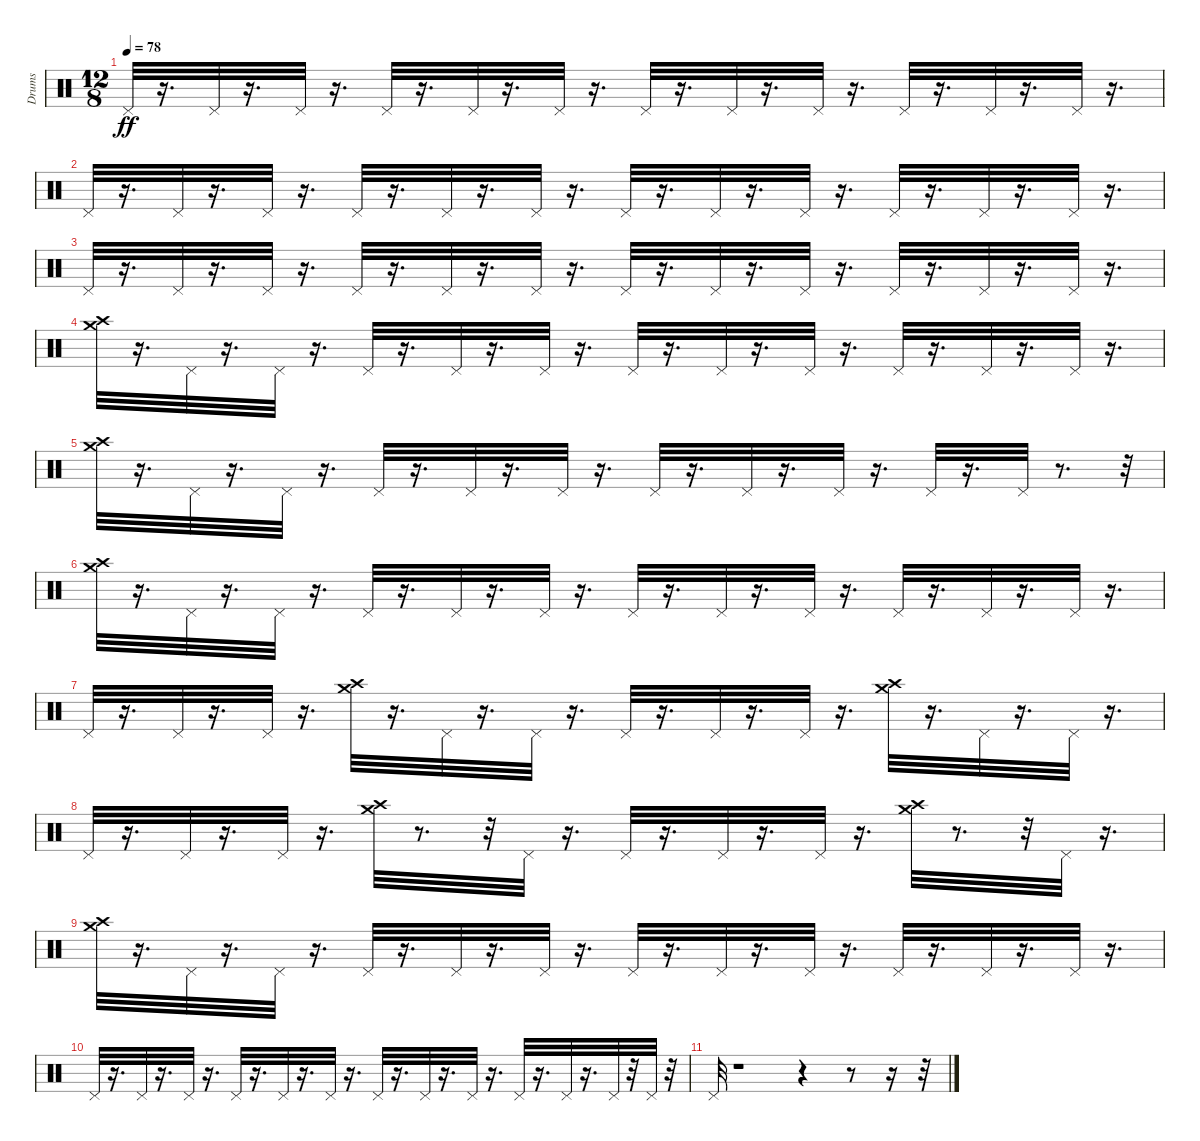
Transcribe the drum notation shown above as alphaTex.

\track ("Drums" "Drums") {instrument percussion}
\staff {score}
\articulation defaults
\ts (12 8)
\tempo 78
\clef neutral
\ks c "Pedal Hi-Hat (hit)".32{dy ff}
r.16{d} "Pedal Hi-Hat (hit)".32 r.16{d} "Pedal Hi-Hat (hit)".32 r.16{d} "Pedal Hi-Hat (hit)".32 r.16{d} "Pedal Hi-Hat (hit)".32 r.16{d} "Pedal Hi-Hat (hit)".32 r.16{d} "Pedal Hi-Hat (hit)".32 r.16{d} "Pedal Hi-Hat (hit)".32 r.16{d} "Pedal Hi-Hat (hit)".32 r.16{d} "Pedal Hi-Hat (hit)".32 r.16{d} "Pedal Hi-Hat (hit)".32 r.16{d} "Pedal Hi-Hat (hit)".32 r.16{d} |
"Pedal Hi-Hat (hit)".32 r.16{d} "Pedal Hi-Hat (hit)".32 r.16{d} "Pedal Hi-Hat (hit)".32 r.16{d} "Pedal Hi-Hat (hit)".32 r.16{d} "Pedal Hi-Hat (hit)".32 r.16{d} "Pedal Hi-Hat (hit)".32 r.16{d} "Pedal Hi-Hat (hit)".32 r.16{d} "Pedal Hi-Hat (hit)".32 r.16{d} "Pedal Hi-Hat (hit)".32 r.16{d} "Pedal Hi-Hat (hit)".32 r.16{d} "Pedal Hi-Hat (hit)".32 r.16{d} "Pedal Hi-Hat (hit)".32 r.16{d} |
"Pedal Hi-Hat (hit)".32 r.16{d} "Pedal Hi-Hat (hit)".32 r.16{d} "Pedal Hi-Hat (hit)".32 r.16{d} "Pedal Hi-Hat (hit)".32 r.16{d} "Pedal Hi-Hat (hit)".32 r.16{d} "Pedal Hi-Hat (hit)".32 r.16{d} "Pedal Hi-Hat (hit)".32 r.16{d} "Pedal Hi-Hat (hit)".32 r.16{d} "Pedal Hi-Hat (hit)".32 r.16{d} "Pedal Hi-Hat (hit)".32 r.16{d} "Pedal Hi-Hat (hit)".32 r.16{d} "Pedal Hi-Hat (hit)".32 r.16{d} |
("Crash medium (hit)" "Crash high (hit)").32 r.16{d} "Pedal Hi-Hat (hit)".32 r.16{d} "Pedal Hi-Hat (hit)".32 r.16{d} "Pedal Hi-Hat (hit)".32 r.16{d} "Pedal Hi-Hat (hit)".32 r.16{d} "Pedal Hi-Hat (hit)".32 r.16{d} "Pedal Hi-Hat (hit)".32 r.16{d} "Pedal Hi-Hat (hit)".32 r.16{d} "Pedal Hi-Hat (hit)".32 r.16{d} "Pedal Hi-Hat (hit)".32 r.16{d} "Pedal Hi-Hat (hit)".32 r.16{d} "Pedal Hi-Hat (hit)".32 r.16{d} |
("Crash medium (hit)" "Crash high (hit)").32 r.16{d} "Pedal Hi-Hat (hit)".32 r.16{d} "Pedal Hi-Hat (hit)".32 r.16{d} "Pedal Hi-Hat (hit)".32 r.16{d} "Pedal Hi-Hat (hit)".32 r.16{d} "Pedal Hi-Hat (hit)".32 r.16{d} "Pedal Hi-Hat (hit)".32 r.16{d} "Pedal Hi-Hat (hit)".32 r.16{d} "Pedal Hi-Hat (hit)".32 r.16{d} "Pedal Hi-Hat (hit)".32 r.16{d} "Pedal Hi-Hat (hit)".32 r.8{d} r.32 |
("Crash medium (hit)" "Crash high (hit)").32 r.16{d} "Pedal Hi-Hat (hit)".32 r.16{d} "Pedal Hi-Hat (hit)".32 r.16{d} "Pedal Hi-Hat (hit)".32 r.16{d} "Pedal Hi-Hat (hit)".32 r.16{d} "Pedal Hi-Hat (hit)".32 r.16{d} "Pedal Hi-Hat (hit)".32 r.16{d} "Pedal Hi-Hat (hit)".32 r.16{d} "Pedal Hi-Hat (hit)".32 r.16{d} "Pedal Hi-Hat (hit)".32 r.16{d} "Pedal Hi-Hat (hit)".32 r.16{d} "Pedal Hi-Hat (hit)".32 r.16{d} |
"Pedal Hi-Hat (hit)".32 r.16{d} "Pedal Hi-Hat (hit)".32 r.16{d} "Pedal Hi-Hat (hit)".32 r.16{d} ("Crash medium (hit)" "Crash high (hit)").32 r.16{d} "Pedal Hi-Hat (hit)".32 r.16{d} "Pedal Hi-Hat (hit)".32 r.16{d} "Pedal Hi-Hat (hit)".32 r.16{d} "Pedal Hi-Hat (hit)".32 r.16{d} "Pedal Hi-Hat (hit)".32 r.16{d} ("Crash medium (hit)" "Crash high (hit)").32 r.16{d} "Pedal Hi-Hat (hit)".32 r.16{d} "Pedal Hi-Hat (hit)".32 r.16{d} |
"Pedal Hi-Hat (hit)".32 r.16{d} "Pedal Hi-Hat (hit)".32 r.16{d} "Pedal Hi-Hat (hit)".32 r.16{d} ("Crash high (hit)" "Crash medium (hit)").32 r.8{d} r.32 "Pedal Hi-Hat (hit)".32 r.16{d} "Pedal Hi-Hat (hit)".32 r.16{d} "Pedal Hi-Hat (hit)".32 r.16{d} "Pedal Hi-Hat (hit)".32 r.16{d} ("Crash high (hit)" "Crash medium (hit)").32 r.8{d} r.32 "Pedal Hi-Hat (hit)".32 r.16{d} |
("Crash medium (hit)" "Crash high (hit)").32 r.16{d} "Pedal Hi-Hat (hit)".32 r.16{d} "Pedal Hi-Hat (hit)".32 r.16{d} "Pedal Hi-Hat (hit)".32 r.16{d} "Pedal Hi-Hat (hit)".32 r.16{d} "Pedal Hi-Hat (hit)".32 r.16{d} "Pedal Hi-Hat (hit)".32 r.16{d} "Pedal Hi-Hat (hit)".32 r.16{d} "Pedal Hi-Hat (hit)".32 r.16{d} "Pedal Hi-Hat (hit)".32 r.16{d} "Pedal Hi-Hat (hit)".32 r.16{d} "Pedal Hi-Hat (hit)".32 r.16{d} |
"Pedal Hi-Hat (hit)".32 r.16{d} "Pedal Hi-Hat (hit)".32 r.16{d} "Pedal Hi-Hat (hit)".32 r.16{d} "Pedal Hi-Hat (hit)".32 r.16{d} "Pedal Hi-Hat (hit)".32 r.16{d} "Pedal Hi-Hat (hit)".32 r.16{d} "Pedal Hi-Hat (hit)".32 r.16{d} "Pedal Hi-Hat (hit)".32 r.16{d} "Pedal Hi-Hat (hit)".32 r.16{d} "Pedal Hi-Hat (hit)".32 r.16{d} "Pedal Hi-Hat (hit)".32 r.16{d} "Pedal Hi-Hat (hit)".32 r.32 "Pedal Hi-Hat (hit)".32 r.32 |
"Pedal Hi-Hat (hit)".32 r.1 r.4 r.8 r.16 r.32
